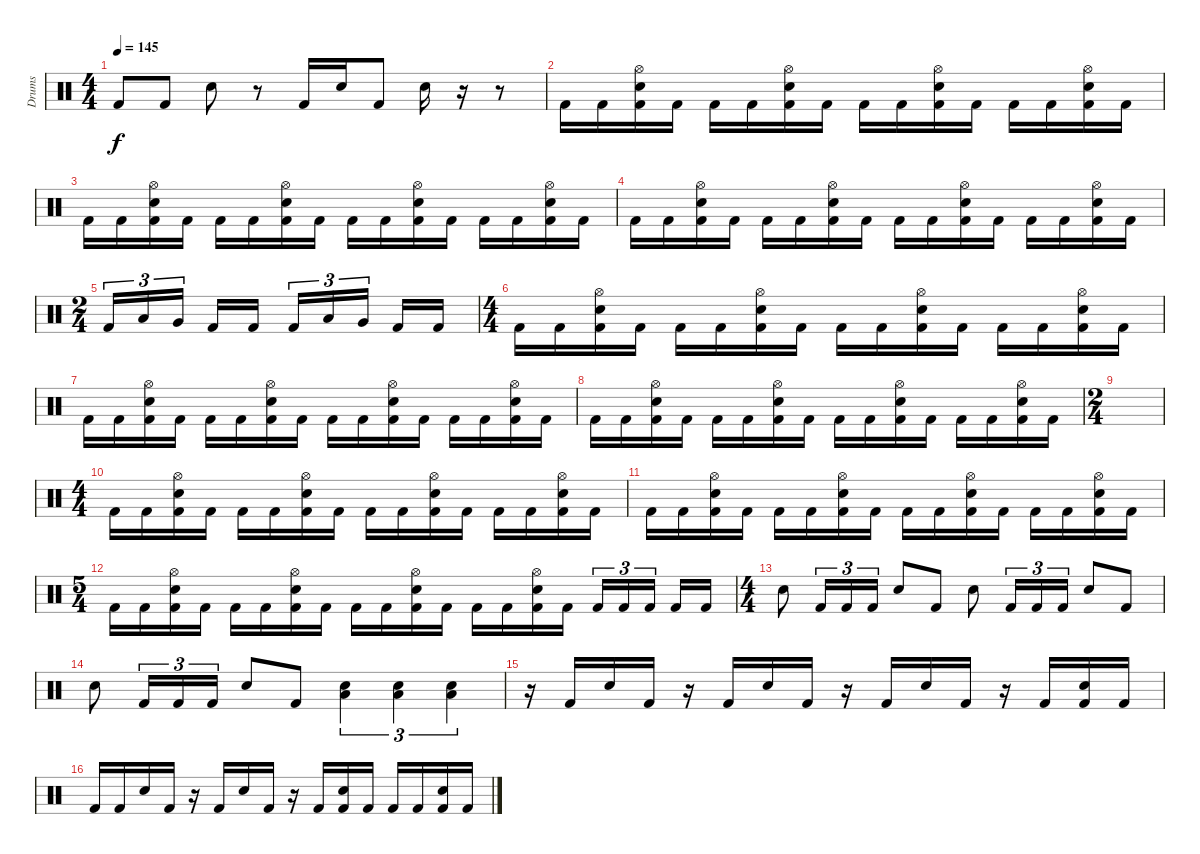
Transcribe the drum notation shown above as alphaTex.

\track ("Drums" "Drums") {instrument percussion}
\staff {score}
\articulation defaults
\ts (4 4)
\tempo 145
\clef neutral
\ks c "Kick (hit) 2".8{dy f} "Kick (hit) 2".8 "Electric Snare (hit)".8
r.8 "Kick (hit) 2".16 "Electric Snare (hit)".16 "Kick (hit) 2".8 "Electric Snare (hit)".16 r.16 r.8 |
"Kick (hit) 2".16 "Kick (hit) 2".16 ("Hi-Hat (open)" "Electric Snare (hit)" "Kick (hit) 2").16 "Kick (hit) 2".16 "Kick (hit) 2".16 "Kick (hit) 2".16 ("Hi-Hat (open)" "Electric Snare (hit)" "Kick (hit) 2").16 "Kick (hit) 2".16 "Kick (hit) 2".16 "Kick (hit) 2".16 ("Hi-Hat (open)" "Electric Snare (hit)" "Kick (hit) 2").16 "Kick (hit) 2".16 "Kick (hit) 2".16 "Kick (hit) 2".16 ("Hi-Hat (open)" "Electric Snare (hit)" "Kick (hit) 2").16 "Kick (hit) 2".16 |
"Kick (hit) 2".16 "Kick (hit) 2".16 ("Hi-Hat (open)" "Electric Snare (hit)" "Kick (hit) 2").16 "Kick (hit) 2".16 "Kick (hit) 2".16 "Kick (hit) 2".16 ("Hi-Hat (open)" "Electric Snare (hit)" "Kick (hit) 2").16 "Kick (hit) 2".16 "Kick (hit) 2".16 "Kick (hit) 2".16 ("Hi-Hat (open)" "Electric Snare (hit)" "Kick (hit) 2").16 "Kick (hit) 2".16 "Kick (hit) 2".16 "Kick (hit) 2".16 ("Hi-Hat (open)" "Electric Snare (hit)" "Kick (hit) 2").16 "Kick (hit) 2".16 |
"Kick (hit) 2".16 "Kick (hit) 2".16 ("Hi-Hat (open)" "Electric Snare (hit)" "Kick (hit) 2").16 "Kick (hit) 2".16 "Kick (hit) 2".16 "Kick (hit) 2".16 ("Hi-Hat (open)" "Electric Snare (hit)" "Kick (hit) 2").16 "Kick (hit) 2".16 "Kick (hit) 2".16 "Kick (hit) 2".16 ("Hi-Hat (open)" "Electric Snare (hit)" "Kick (hit) 2").16 "Kick (hit) 2".16 "Kick (hit) 2".16 "Kick (hit) 2".16 ("Hi-Hat (open)" "Electric Snare (hit)" "Kick (hit) 2").16 "Kick (hit) 2".16 |
\ts (2 4)
"Kick (hit) 2".16{tu (3 2)} "Low Tom (hit)".16{tu (3 2)} "Very Low Tom (hit)".16{tu (3 2)} "Kick (hit) 2".16 "Kick (hit) 2".16 "Kick (hit) 2".16{tu (3 2)} "Low Tom (hit)".16{tu (3 2)} "Very Low Tom (hit)".16{tu (3 2)} "Kick (hit) 2".16 "Kick (hit) 2".16 |
\ts (4 4)
"Kick (hit) 2".16 "Kick (hit) 2".16 ("Hi-Hat (open)" "Electric Snare (hit)" "Kick (hit) 2").16 "Kick (hit) 2".16 "Kick (hit) 2".16 "Kick (hit) 2".16 ("Hi-Hat (open)" "Electric Snare (hit)" "Kick (hit) 2").16 "Kick (hit) 2".16 "Kick (hit) 2".16 "Kick (hit) 2".16 ("Hi-Hat (open)" "Electric Snare (hit)" "Kick (hit) 2").16 "Kick (hit) 2".16 "Kick (hit) 2".16 "Kick (hit) 2".16 ("Hi-Hat (open)" "Electric Snare (hit)" "Kick (hit) 2").16 "Kick (hit) 2".16 |
"Kick (hit) 2".16 "Kick (hit) 2".16 ("Hi-Hat (open)" "Electric Snare (hit)" "Kick (hit) 2").16 "Kick (hit) 2".16 "Kick (hit) 2".16 "Kick (hit) 2".16 ("Hi-Hat (open)" "Electric Snare (hit)" "Kick (hit) 2").16 "Kick (hit) 2".16 "Kick (hit) 2".16 "Kick (hit) 2".16 ("Hi-Hat (open)" "Electric Snare (hit)" "Kick (hit) 2").16 "Kick (hit) 2".16 "Kick (hit) 2".16 "Kick (hit) 2".16 ("Hi-Hat (open)" "Electric Snare (hit)" "Kick (hit) 2").16 "Kick (hit) 2".16 |
"Kick (hit) 2".16 "Kick (hit) 2".16 ("Hi-Hat (open)" "Electric Snare (hit)" "Kick (hit) 2").16 "Kick (hit) 2".16 "Kick (hit) 2".16 "Kick (hit) 2".16 ("Hi-Hat (open)" "Electric Snare (hit)" "Kick (hit) 2").16 "Kick (hit) 2".16 "Kick (hit) 2".16 "Kick (hit) 2".16 ("Hi-Hat (open)" "Electric Snare (hit)" "Kick (hit) 2").16 "Kick (hit) 2".16 "Kick (hit) 2".16 "Kick (hit) 2".16 ("Hi-Hat (open)" "Electric Snare (hit)" "Kick (hit) 2").16 "Kick (hit) 2".16 |
\ts (2 4)
|
\ts (4 4)
"Kick (hit) 2".16 "Kick (hit) 2".16 ("Hi-Hat (open)" "Electric Snare (hit)" "Kick (hit) 2").16 "Kick (hit) 2".16 "Kick (hit) 2".16 "Kick (hit) 2".16 ("Hi-Hat (open)" "Electric Snare (hit)" "Kick (hit) 2").16 "Kick (hit) 2".16 "Kick (hit) 2".16 "Kick (hit) 2".16 ("Hi-Hat (open)" "Electric Snare (hit)" "Kick (hit) 2").16 "Kick (hit) 2".16 "Kick (hit) 2".16 "Kick (hit) 2".16 ("Hi-Hat (open)" "Electric Snare (hit)" "Kick (hit) 2").16 "Kick (hit) 2".16 |
"Kick (hit) 2".16 "Kick (hit) 2".16 ("Hi-Hat (open)" "Electric Snare (hit)" "Kick (hit) 2").16 "Kick (hit) 2".16 "Kick (hit) 2".16 "Kick (hit) 2".16 ("Hi-Hat (open)" "Electric Snare (hit)" "Kick (hit) 2").16 "Kick (hit) 2".16 "Kick (hit) 2".16 "Kick (hit) 2".16 ("Hi-Hat (open)" "Electric Snare (hit)" "Kick (hit) 2").16 "Kick (hit) 2".16 "Kick (hit) 2".16 "Kick (hit) 2".16 ("Hi-Hat (open)" "Electric Snare (hit)" "Kick (hit) 2").16 "Kick (hit) 2".16 |
\ts (5 4)
"Kick (hit) 2".16 "Kick (hit) 2".16 ("Hi-Hat (open)" "Electric Snare (hit)" "Kick (hit) 2").16 "Kick (hit) 2".16 "Kick (hit) 2".16 "Kick (hit) 2".16 ("Hi-Hat (open)" "Electric Snare (hit)" "Kick (hit) 2").16 "Kick (hit) 2".16 "Kick (hit) 2".16 "Kick (hit) 2".16 ("Hi-Hat (open)" "Electric Snare (hit)" "Kick (hit) 2").16 "Kick (hit) 2".16 "Kick (hit) 2".16 "Kick (hit) 2".16 ("Hi-Hat (open)" "Electric Snare (hit)" "Kick (hit) 2").16 "Kick (hit) 2".16 "Kick (hit) 2".16{tu (3 2)} "Kick (hit) 2".16{tu (3 2)} "Kick (hit) 2".16{tu (3 2)} "Kick (hit) 2".16 "Kick (hit) 2".16 |
\ts (4 4)
"Electric Snare (hit)".8 "Kick (hit) 2".16{tu (3 2)} "Kick (hit) 2".16{tu (3 2)} "Kick (hit) 2".16{tu (3 2)} "Electric Snare (hit)".8 "Kick (hit) 2".8 "Electric Snare (hit)".8 "Kick (hit) 2".16{tu (3 2)} "Kick (hit) 2".16{tu (3 2)} "Kick (hit) 2".16{tu (3 2)} "Electric Snare (hit)".8 "Kick (hit) 2".8 |
"Electric Snare (hit)".8 "Kick (hit) 2".16{tu (3 2)} "Kick (hit) 2".16{tu (3 2)} "Kick (hit) 2".16{tu (3 2)} "Electric Snare (hit)".8 "Kick (hit) 2".8 ("Electric Snare (hit)" "Low Tom (hit)").4{tu (3 2)} ("Electric Snare (hit)" "Low Tom (hit)").4{tu (3 2)} ("Electric Snare (hit)" "Low Tom (hit)").4{tu (3 2)} |
r.16 "Kick (hit) 2".16 "Electric Snare (hit)".16 "Kick (hit) 2".16 r.16 "Kick (hit) 2".16 "Electric Snare (hit)".16 "Kick (hit) 2".16 r.16 "Kick (hit) 2".16 "Electric Snare (hit)".16 "Kick (hit) 2".16 r.16 "Kick (hit) 2".16 ("Electric Snare (hit)" "Kick (hit) 2").16 "Kick (hit) 2".16 |
"Kick (hit) 2".16 "Kick (hit) 2".16 "Electric Snare (hit)".16 "Kick (hit) 2".16 r.16 "Kick (hit) 2".16 "Electric Snare (hit)".16 "Kick (hit) 2".16 r.16 "Kick (hit) 2".16 ("Electric Snare (hit)" "Kick (hit) 2").16 "Kick (hit) 2".16 "Kick (hit) 2".16 "Kick (hit) 2".16 ("Electric Snare (hit)" "Kick (hit) 2").16 "Kick (hit) 2".16
